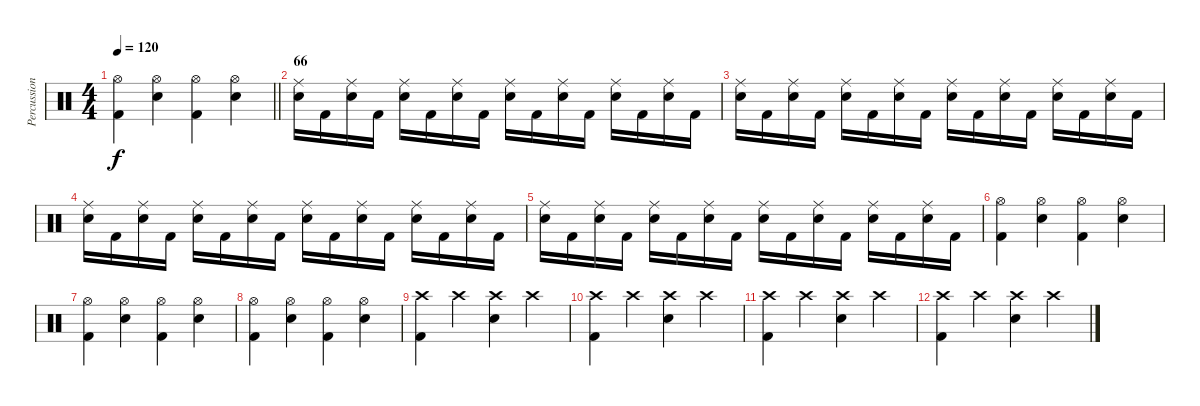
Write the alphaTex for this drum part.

\track ("Percussion" "Percussion") {instrument percussion}
\staff {score}
\articulation defaults
\ts (4 4)
\tempo 120
\clef neutral
\barLineRight lightlight
\ks c
("Hi-Hat (open)" "Kick (hit) 2").4{dy f} ("Hi-Hat (open)" "Electric Snare (hit)").4 ("Hi-Hat (open)" "Kick (hit) 2").4 ("Hi-Hat (open)" "Electric Snare (hit)").4 |
\section ("" "66")
("Electric Snare (hit)" "Ride (middle)").16 "Kick (hit) 2".16 ("Electric Snare (hit)" "Ride (middle)").16 "Kick (hit) 2".16 ("Electric Snare (hit)" "Ride (middle)").16 "Kick (hit) 2".16 ("Electric Snare (hit)" "Ride (middle)").16 "Kick (hit) 2".16 ("Electric Snare (hit)" "Ride (middle)").16 "Kick (hit) 2".16 ("Electric Snare (hit)" "Ride (middle)").16 "Kick (hit) 2".16 ("Electric Snare (hit)" "Ride (middle)").16 "Kick (hit) 2".16 ("Electric Snare (hit)" "Ride (middle)").16 "Kick (hit) 2".16 |
("Electric Snare (hit)" "Ride (middle)").16 "Kick (hit) 2".16 ("Electric Snare (hit)" "Ride (middle)").16 "Kick (hit) 2".16 ("Electric Snare (hit)" "Ride (middle)").16 "Kick (hit) 2".16 ("Electric Snare (hit)" "Ride (middle)").16 "Kick (hit) 2".16 ("Electric Snare (hit)" "Ride (middle)").16 "Kick (hit) 2".16 ("Electric Snare (hit)" "Ride (middle)").16 "Kick (hit) 2".16 ("Electric Snare (hit)" "Ride (middle)").16 "Kick (hit) 2".16 ("Electric Snare (hit)" "Ride (middle)").16 "Kick (hit) 2".16 |
("Electric Snare (hit)" "Ride (middle)").16 "Kick (hit) 2".16 ("Electric Snare (hit)" "Ride (middle)").16 "Kick (hit) 2".16 ("Electric Snare (hit)" "Ride (middle)").16 "Kick (hit) 2".16 ("Electric Snare (hit)" "Ride (middle)").16 "Kick (hit) 2".16 ("Electric Snare (hit)" "Ride (middle)").16 "Kick (hit) 2".16 ("Electric Snare (hit)" "Ride (middle)").16 "Kick (hit) 2".16 ("Electric Snare (hit)" "Ride (middle)").16 "Kick (hit) 2".16 ("Electric Snare (hit)" "Ride (middle)").16 "Kick (hit) 2".16 |
("Electric Snare (hit)" "Ride (middle)").16 "Kick (hit) 2".16 ("Electric Snare (hit)" "Ride (middle)").16 "Kick (hit) 2".16 ("Electric Snare (hit)" "Ride (middle)").16 "Kick (hit) 2".16 ("Electric Snare (hit)" "Ride (middle)").16 "Kick (hit) 2".16 ("Electric Snare (hit)" "Ride (middle)").16 "Kick (hit) 2".16 ("Electric Snare (hit)" "Ride (middle)").16 "Kick (hit) 2".16 ("Electric Snare (hit)" "Ride (middle)").16 "Kick (hit) 2".16 ("Electric Snare (hit)" "Ride (middle)").16 "Kick (hit) 2".16 |
("Hi-Hat (open)" "Kick (hit) 2").4 ("Hi-Hat (open)" "Electric Snare (hit)").4 ("Hi-Hat (open)" "Kick (hit) 2").4 ("Hi-Hat (open)" "Electric Snare (hit)").4 |
("Hi-Hat (open)" "Kick (hit) 2").4 ("Hi-Hat (open)" "Electric Snare (hit)").4 ("Hi-Hat (open)" "Kick (hit) 2").4 ("Hi-Hat (open)" "Electric Snare (hit)").4 |
("Hi-Hat (open)" "Kick (hit) 2").4 ("Hi-Hat (open)" "Electric Snare (hit)").4 ("Hi-Hat (open)" "Kick (hit) 2").4 ("Hi-Hat (open)" "Electric Snare (hit)").4 |
("Crash high (hit)" "Kick (hit) 2").4 "Crash high (hit)".4 ("Crash high (hit)" "Electric Snare (hit)").4 "Crash high (hit)".4 |
("Crash high (hit)" "Kick (hit) 2").4 "Crash high (hit)".4 ("Crash high (hit)" "Electric Snare (hit)").4 "Crash high (hit)".4 |
("Crash high (hit)" "Kick (hit) 2").4 "Crash high (hit)".4 ("Crash high (hit)" "Electric Snare (hit)").4 "Crash high (hit)".4 |
("Crash high (hit)" "Kick (hit) 2").4 "Crash high (hit)".4 ("Crash high (hit)" "Electric Snare (hit)").4 "Crash high (hit)".4
